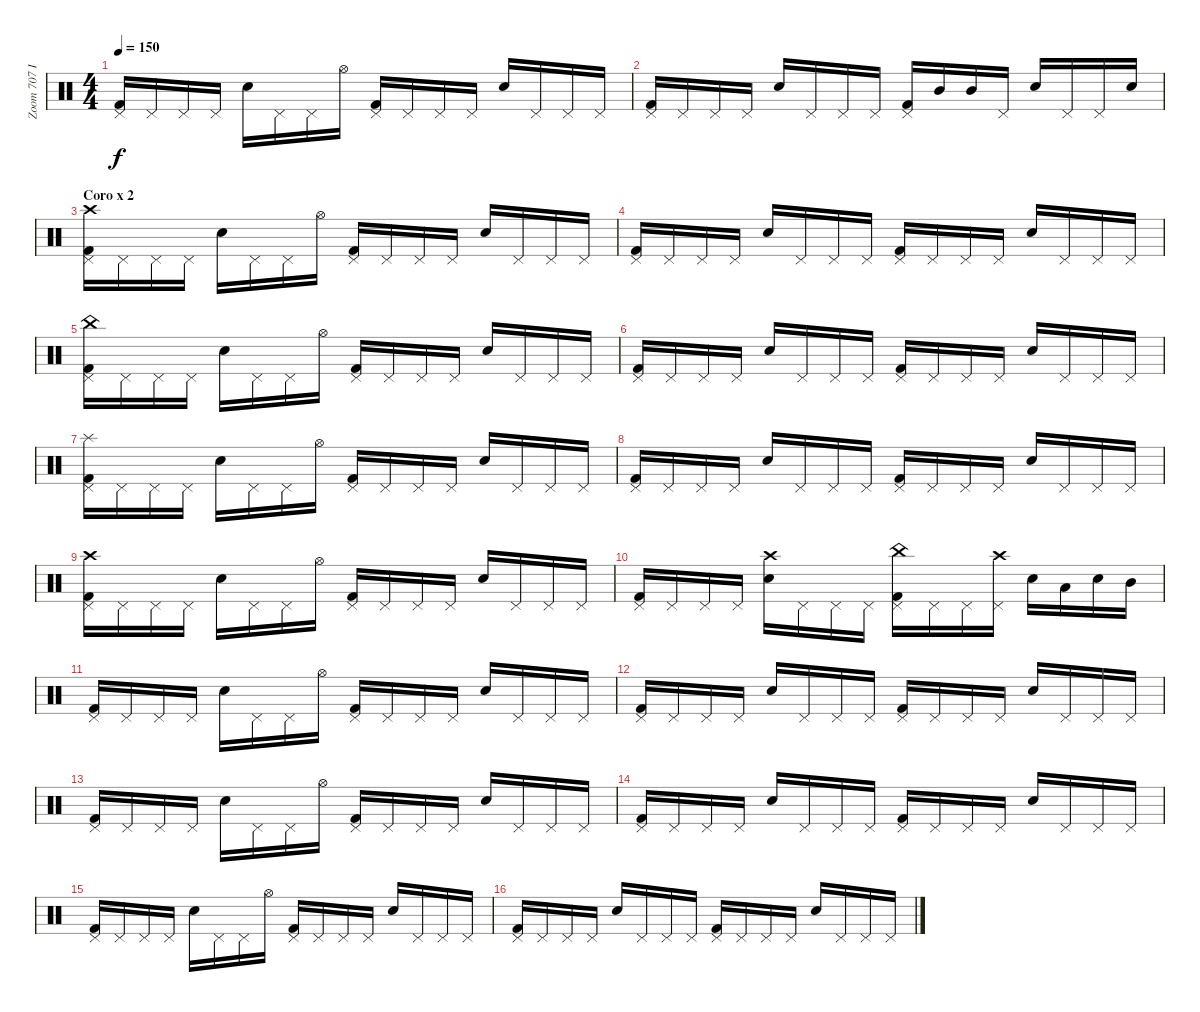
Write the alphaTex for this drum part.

\track ("Zoom 707 II" "Zoom 707 I") {instrument percussion}
\staff {score}
\articulation defaults
\ts (4 4)
\tempo 150
\clef neutral
\ks c
("Pedal Hi-Hat (hit)" "Kick (hit) 2").16{dy f} "Pedal Hi-Hat (hit)".16 "Pedal Hi-Hat (hit)".16 "Pedal Hi-Hat (hit)".16 "Snare (hit) 2".16 "Pedal Hi-Hat (hit)".16 "Pedal Hi-Hat (hit)".16 "Hi-Hat (open)".16 ("Pedal Hi-Hat (hit)" "Kick (hit) 2").16 "Pedal Hi-Hat (hit)".16 "Pedal Hi-Hat (hit)".16 "Pedal Hi-Hat (hit)".16 "Snare (hit) 2".16 "Pedal Hi-Hat (hit)".16 "Pedal Hi-Hat (hit)".16 "Pedal Hi-Hat (hit)".16 |
("Pedal Hi-Hat (hit)" "Kick (hit) 2").16 "Pedal Hi-Hat (hit)".16 "Pedal Hi-Hat (hit)".16 "Pedal Hi-Hat (hit)".16 "Snare (hit) 2".16 "Pedal Hi-Hat (hit)".16 "Pedal Hi-Hat (hit)".16 "Pedal Hi-Hat (hit)".16 ("Pedal Hi-Hat (hit)" "Kick (hit) 2").16 "Mid Tom (hit)".16 "Mid Tom (hit)".16 "Pedal Hi-Hat (hit)".16 "Snare (hit) 2".16 "Pedal Hi-Hat (hit)".16 "Pedal Hi-Hat (hit)".16 "Snare (hit) 2".16 |
\section ("" "Coro x 2")
("Crash high (hit)" "Pedal Hi-Hat (hit)" "Kick (hit) 2").16 "Pedal Hi-Hat (hit)".16 "Pedal Hi-Hat (hit)".16 "Pedal Hi-Hat (hit)".16 "Snare (hit) 2".16 "Pedal Hi-Hat (hit)".16 "Pedal Hi-Hat (hit)".16 "Hi-Hat (open)".16 ("Pedal Hi-Hat (hit)" "Kick (hit) 2").16 "Pedal Hi-Hat (hit)".16 "Pedal Hi-Hat (hit)".16 "Pedal Hi-Hat (hit)".16 "Snare (hit) 2".16 "Pedal Hi-Hat (hit)".16 "Pedal Hi-Hat (hit)".16 "Pedal Hi-Hat (hit)".16 |
("Pedal Hi-Hat (hit)" "Kick (hit) 2").16 "Pedal Hi-Hat (hit)".16 "Pedal Hi-Hat (hit)".16 "Pedal Hi-Hat (hit)".16 "Snare (hit) 2".16 "Pedal Hi-Hat (hit)".16 "Pedal Hi-Hat (hit)".16 "Pedal Hi-Hat (hit)".16 ("Pedal Hi-Hat (hit)" "Kick (hit) 2").16 "Pedal Hi-Hat (hit)".16 "Pedal Hi-Hat (hit)".16 "Pedal Hi-Hat (hit)".16 "Snare (hit) 2".16 "Pedal Hi-Hat (hit)".16 "Pedal Hi-Hat (hit)".16 "Pedal Hi-Hat (hit)".16 |
("China (hit)" "Pedal Hi-Hat (hit)" "Kick (hit) 2").16 "Pedal Hi-Hat (hit)".16 "Pedal Hi-Hat (hit)".16 "Pedal Hi-Hat (hit)".16 "Snare (hit) 2".16 "Pedal Hi-Hat (hit)".16 "Pedal Hi-Hat (hit)".16 "Hi-Hat (open)".16 ("Pedal Hi-Hat (hit)" "Kick (hit) 2").16 "Pedal Hi-Hat (hit)".16 "Pedal Hi-Hat (hit)".16 "Pedal Hi-Hat (hit)".16 "Snare (hit) 2".16 "Pedal Hi-Hat (hit)".16 "Pedal Hi-Hat (hit)".16 "Pedal Hi-Hat (hit)".16 |
("Pedal Hi-Hat (hit)" "Kick (hit) 2").16 "Pedal Hi-Hat (hit)".16 "Pedal Hi-Hat (hit)".16 "Pedal Hi-Hat (hit)".16 "Snare (hit) 2".16 "Pedal Hi-Hat (hit)".16 "Pedal Hi-Hat (hit)".16 "Pedal Hi-Hat (hit)".16 ("Pedal Hi-Hat (hit)" "Kick (hit) 2").16 "Pedal Hi-Hat (hit)".16 "Pedal Hi-Hat (hit)".16 "Pedal Hi-Hat (hit)".16 "Snare (hit) 2".16 "Pedal Hi-Hat (hit)".16 "Pedal Hi-Hat (hit)".16 "Pedal Hi-Hat (hit)".16 |
("Splash (hit)" "Pedal Hi-Hat (hit)" "Kick (hit) 2").16 "Pedal Hi-Hat (hit)".16 "Pedal Hi-Hat (hit)".16 "Pedal Hi-Hat (hit)".16 "Snare (hit) 2".16 "Pedal Hi-Hat (hit)".16 "Pedal Hi-Hat (hit)".16 "Hi-Hat (open)".16 ("Pedal Hi-Hat (hit)" "Kick (hit) 2").16 "Pedal Hi-Hat (hit)".16 "Pedal Hi-Hat (hit)".16 "Pedal Hi-Hat (hit)".16 "Snare (hit) 2".16 "Pedal Hi-Hat (hit)".16 "Pedal Hi-Hat (hit)".16 "Pedal Hi-Hat (hit)".16 |
("Pedal Hi-Hat (hit)" "Kick (hit) 2").16 "Pedal Hi-Hat (hit)".16 "Pedal Hi-Hat (hit)".16 "Pedal Hi-Hat (hit)".16 "Snare (hit) 2".16 "Pedal Hi-Hat (hit)".16 "Pedal Hi-Hat (hit)".16 "Pedal Hi-Hat (hit)".16 ("Pedal Hi-Hat (hit)" "Kick (hit) 2").16 "Pedal Hi-Hat (hit)".16 "Pedal Hi-Hat (hit)".16 "Pedal Hi-Hat (hit)".16 "Snare (hit) 2".16 "Pedal Hi-Hat (hit)".16 "Pedal Hi-Hat (hit)".16 "Pedal Hi-Hat (hit)".16 |
("Crash high (hit)" "Pedal Hi-Hat (hit)" "Kick (hit) 2").16 "Pedal Hi-Hat (hit)".16 "Pedal Hi-Hat (hit)".16 "Pedal Hi-Hat (hit)".16 "Snare (hit) 2".16 "Pedal Hi-Hat (hit)".16 "Pedal Hi-Hat (hit)".16 "Hi-Hat (open)".16 ("Pedal Hi-Hat (hit)" "Kick (hit) 2").16 "Pedal Hi-Hat (hit)".16 "Pedal Hi-Hat (hit)".16 "Pedal Hi-Hat (hit)".16 "Snare (hit) 2".16 "Pedal Hi-Hat (hit)".16 "Pedal Hi-Hat (hit)".16 "Pedal Hi-Hat (hit)".16 |
("Pedal Hi-Hat (hit)" "Kick (hit) 2").16 "Pedal Hi-Hat (hit)".16 "Pedal Hi-Hat (hit)".16 "Pedal Hi-Hat (hit)".16 ("Crash high (hit)" "Snare (hit) 2").16 "Pedal Hi-Hat (hit)".16 "Pedal Hi-Hat (hit)".16 "Pedal Hi-Hat (hit)".16 ("China (hit)" "Pedal Hi-Hat (hit)" "Kick (hit) 2").16 "Pedal Hi-Hat (hit)".16 "Pedal Hi-Hat (hit)".16 ("Crash high (hit)" "Pedal Hi-Hat (hit)").16 "Snare (hit) 2".16 "Low Tom (hit)".16 "Snare (hit) 2".16 "Mid Tom (hit)".16 |
("Pedal Hi-Hat (hit)" "Kick (hit) 2").16 "Pedal Hi-Hat (hit)".16 "Pedal Hi-Hat (hit)".16 "Pedal Hi-Hat (hit)".16 "Snare (hit) 2".16 "Pedal Hi-Hat (hit)".16 "Pedal Hi-Hat (hit)".16 "Hi-Hat (open)".16 ("Pedal Hi-Hat (hit)" "Kick (hit) 2").16 "Pedal Hi-Hat (hit)".16 "Pedal Hi-Hat (hit)".16 "Pedal Hi-Hat (hit)".16 "Snare (hit) 2".16 "Pedal Hi-Hat (hit)".16 "Pedal Hi-Hat (hit)".16 "Pedal Hi-Hat (hit)".16 |
("Pedal Hi-Hat (hit)" "Kick (hit) 2").16 "Pedal Hi-Hat (hit)".16 "Pedal Hi-Hat (hit)".16 "Pedal Hi-Hat (hit)".16 "Snare (hit) 2".16 "Pedal Hi-Hat (hit)".16 "Pedal Hi-Hat (hit)".16 "Pedal Hi-Hat (hit)".16 ("Pedal Hi-Hat (hit)" "Kick (hit) 2").16 "Pedal Hi-Hat (hit)".16 "Pedal Hi-Hat (hit)".16 "Pedal Hi-Hat (hit)".16 "Snare (hit) 2".16 "Pedal Hi-Hat (hit)".16 "Pedal Hi-Hat (hit)".16 "Pedal Hi-Hat (hit)".16 |
("Pedal Hi-Hat (hit)" "Kick (hit) 2").16 "Pedal Hi-Hat (hit)".16 "Pedal Hi-Hat (hit)".16 "Pedal Hi-Hat (hit)".16 "Snare (hit) 2".16 "Pedal Hi-Hat (hit)".16 "Pedal Hi-Hat (hit)".16 "Hi-Hat (open)".16 ("Pedal Hi-Hat (hit)" "Kick (hit) 2").16 "Pedal Hi-Hat (hit)".16 "Pedal Hi-Hat (hit)".16 "Pedal Hi-Hat (hit)".16 "Snare (hit) 2".16 "Pedal Hi-Hat (hit)".16 "Pedal Hi-Hat (hit)".16 "Pedal Hi-Hat (hit)".16 |
("Pedal Hi-Hat (hit)" "Kick (hit) 2").16 "Pedal Hi-Hat (hit)".16 "Pedal Hi-Hat (hit)".16 "Pedal Hi-Hat (hit)".16 "Snare (hit) 2".16 "Pedal Hi-Hat (hit)".16 "Pedal Hi-Hat (hit)".16 "Pedal Hi-Hat (hit)".16 ("Pedal Hi-Hat (hit)" "Kick (hit) 2").16 "Pedal Hi-Hat (hit)".16 "Pedal Hi-Hat (hit)".16 "Pedal Hi-Hat (hit)".16 "Snare (hit) 2".16 "Pedal Hi-Hat (hit)".16 "Pedal Hi-Hat (hit)".16 "Pedal Hi-Hat (hit)".16 |
("Pedal Hi-Hat (hit)" "Kick (hit) 2").16 "Pedal Hi-Hat (hit)".16 "Pedal Hi-Hat (hit)".16 "Pedal Hi-Hat (hit)".16 "Snare (hit) 2".16 "Pedal Hi-Hat (hit)".16 "Pedal Hi-Hat (hit)".16 "Hi-Hat (open)".16 ("Pedal Hi-Hat (hit)" "Kick (hit) 2").16 "Pedal Hi-Hat (hit)".16 "Pedal Hi-Hat (hit)".16 "Pedal Hi-Hat (hit)".16 "Snare (hit) 2".16 "Pedal Hi-Hat (hit)".16 "Pedal Hi-Hat (hit)".16 "Pedal Hi-Hat (hit)".16 |
("Pedal Hi-Hat (hit)" "Kick (hit) 2").16 "Pedal Hi-Hat (hit)".16 "Pedal Hi-Hat (hit)".16 "Pedal Hi-Hat (hit)".16 "Snare (hit) 2".16 "Pedal Hi-Hat (hit)".16 "Pedal Hi-Hat (hit)".16 "Pedal Hi-Hat (hit)".16 ("Pedal Hi-Hat (hit)" "Kick (hit) 2").16 "Pedal Hi-Hat (hit)".16 "Pedal Hi-Hat (hit)".16 "Pedal Hi-Hat (hit)".16 "Snare (hit) 2".16 "Pedal Hi-Hat (hit)".16 "Pedal Hi-Hat (hit)".16 "Pedal Hi-Hat (hit)".16
